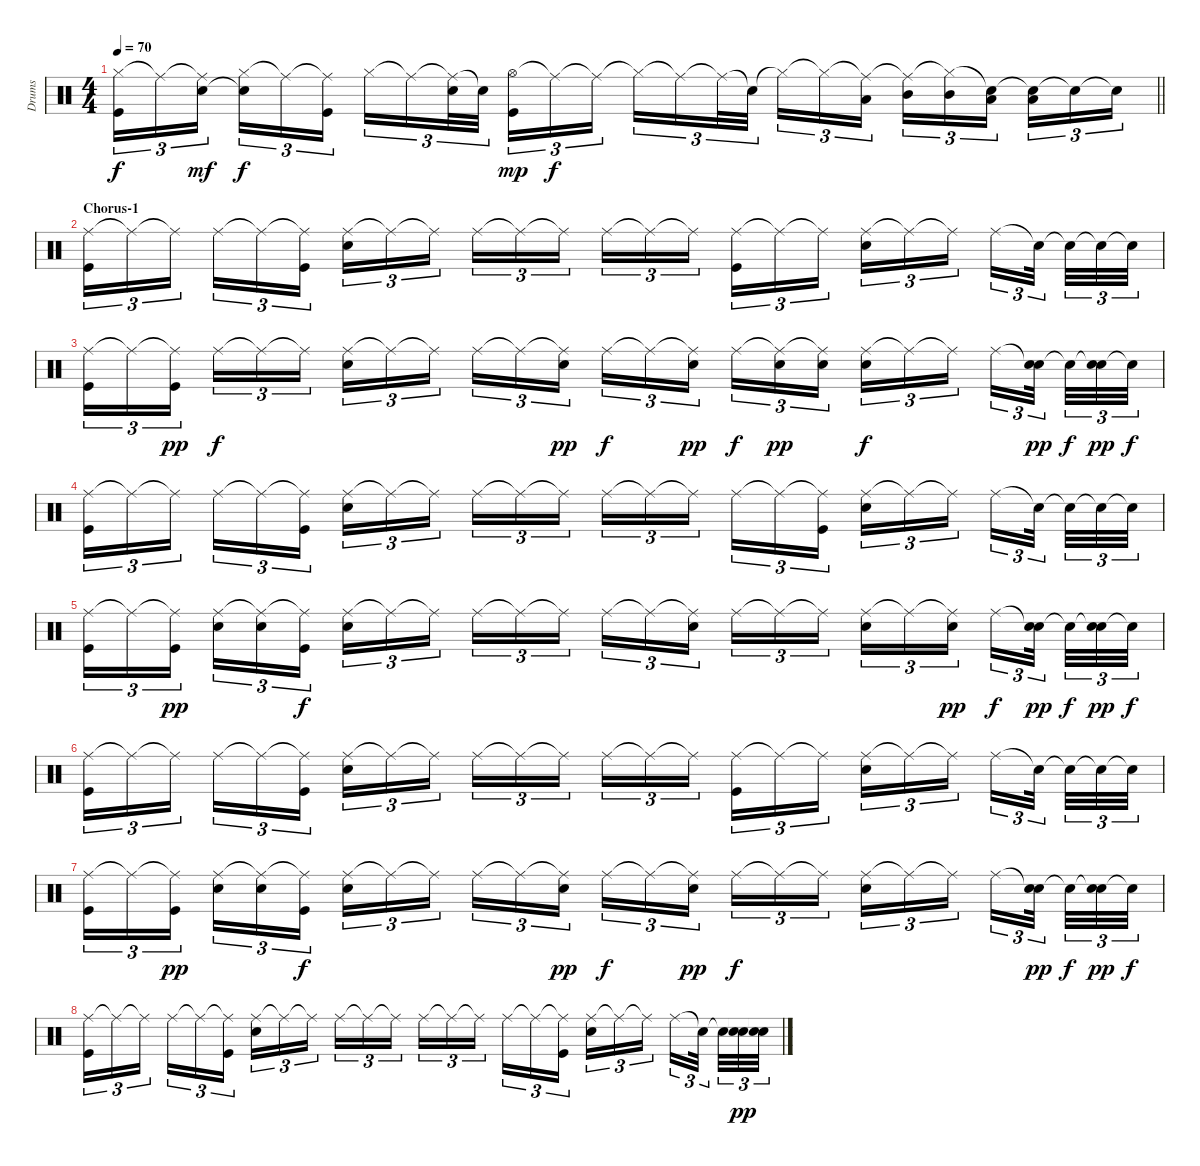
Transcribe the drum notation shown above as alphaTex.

\track ("Drums" "Drums") {instrument percussion}
\staff {score}
\articulation defaults
\ts (4 4)
\tempo 70
\clef neutral
\barLineRight lightlight
\ks c
("Hi-Hat (closed)" "Kick (hit)").16{tu (3 2) dy f} "Ride (middle)"{t}.16{tu (3 2)} ("Ride (middle)"{t} "Electric Snare (hit)").16{tu (3 2) dy mf} ("Hi-Hat (closed)" "Electric Snare (hit)"{t}).16{tu (3 2) dy f} "Ride (middle)"{t}.16{tu (3 2)} ("Ride (middle)"{t} "Kick (hit)").16{tu (3 2)} "Hi-Hat (closed)".16{tu (3 2)} "Ride (middle)"{t}.16{tu (3 2)} ("Ride (middle)"{t} "Electric Snare (hit)").32{tu (3 2)} "Electric Snare (hit)"{t}.32{tu (3 2)} ("Hi-Hat (open)" "Kick (hit)").16{tu (3 2) dy mp} "Ride (middle)"{t}.16{tu (3 2) dy f} "Ride (middle)"{t}.16{tu (3 2)} "Hi-Hat (closed)"{t}.16{tu (3 2)} "Ride (middle)"{t}.16{tu (3 2)} "Ride (middle)"{t}.32{tu (3 2)} "Snare (hit)"{t}.32{tu (3 2)} "Hi-Hat (closed)"{t}.16{tu (3 2)} "Hi-Hat (closed)"{t}.16{tu (3 2)} ("Ride (middle)"{t} "Low Tom (hit)").16{tu (3 2)} ("Ride (middle)"{t} "Mid Tom (hit)").16{tu (3 2)} ("Hi-Hat (closed)"{t} "Mid Tom (hit)").16{tu (3 2)} ("Snare (hit)"{t} "Low Tom (hit)").16{tu (3 2)} ("Snare (hit)"{t} "Low Tom (hit)").16{tu (3 2)} "Snare (hit)"{t}.16{tu (3 2)} "Snare (hit)"{t}.16{tu (3 2)} |
\section ("" "Chorus-1")
("Ride (middle)" "Kick (hit)").16{tu (3 2)} "Ride (middle)"{t}.16{tu (3 2)} "Ride (middle)"{t}.16{tu (3 2)} "Ride (middle)".16{tu (3 2)} "Ride (middle)"{t}.16{tu (3 2)} ("Ride (middle)"{t} "Kick (hit)").16{tu (3 2)} ("Ride (middle)" "Electric Snare (hit)").16{tu (3 2)} "Ride (middle)"{t}.16{tu (3 2)} "Ride (middle)"{t}.16{tu (3 2)} "Ride (middle)".16{tu (3 2)} "Ride (middle)"{t}.16{tu (3 2)} "Ride (middle)"{t}.16{tu (3 2)} "Ride (middle)".16{tu (3 2)} "Ride (middle)"{t}.16{tu (3 2)} "Ride (middle)"{t}.16{tu (3 2)} ("Ride (middle)" "Kick (hit)").16{tu (3 2)} "Ride (middle)"{t}.16{tu (3 2)} "Ride (middle)"{t}.16{tu (3 2)} ("Ride (middle)" "Electric Snare (hit)").16{tu (3 2)} "Ride (middle)"{t}.16{tu (3 2)} "Ride (middle)"{t}.16{tu (3 2)} "Ride (middle)".16{tu (3 2)} "Snare (hit)"{t}.32{tu (3 2)} "Snare (hit)"{t}.32{tu (3 2)} "Snare (hit)"{t}.32{tu (3 2)} "Snare (hit)"{t}.32{tu (3 2)} |
("Ride (middle)" "Kick (hit)").16{tu (3 2)} "Ride (middle)"{t}.16{tu (3 2)} ("Ride (middle)"{t} "Kick (hit)").16{tu (3 2) dy pp} "Ride (middle)".16{tu (3 2) dy f} "Ride (middle)"{t}.16{tu (3 2)} "Ride (middle)"{t}.16{tu (3 2)} ("Ride (middle)" "Electric Snare (hit)").16{tu (3 2)} "Ride (middle)"{t}.16{tu (3 2)} "Ride (middle)"{t}.16{tu (3 2)} "Ride (middle)".16{tu (3 2)} "Ride (middle)"{t}.16{tu (3 2)} ("Ride (middle)"{t} "Electric Snare (hit)").16{tu (3 2) dy pp} "Ride (middle)".16{tu (3 2) dy f} "Ride (middle)"{t}.16{tu (3 2)} ("Ride (middle)"{t} "Electric Snare (hit)").16{tu (3 2) dy pp} "Ride (middle)".16{tu (3 2) dy f} ("Ride (middle)"{t} "Electric Snare (hit)").16{tu (3 2) dy pp} ("Ride (middle)"{t} "Electric Snare (hit)").16{tu (3 2)} ("Ride (middle)" "Electric Snare (hit)").16{tu (3 2) dy f} "Ride (middle)"{t}.16{tu (3 2)} "Ride (middle)"{t}.16{tu (3 2)} "Ride (middle)".16{tu (3 2)} ("Snare (hit)"{t} "Electric Snare (hit)").32{tu (3 2) dy pp} "Snare (hit)"{t}.32{tu (3 2) dy f} ("Snare (hit)"{t} "Electric Snare (hit)").32{tu (3 2) dy pp} "Snare (hit)"{t}.32{tu (3 2) dy f} |
("Ride (middle)" "Kick (hit)").16{tu (3 2)} "Ride (middle)"{t}.16{tu (3 2)} "Ride (middle)"{t}.16{tu (3 2)} "Ride (middle)".16{tu (3 2)} "Ride (middle)"{t}.16{tu (3 2)} ("Ride (middle)"{t} "Kick (hit)").16{tu (3 2)} ("Ride (middle)" "Electric Snare (hit)").16{tu (3 2)} "Ride (middle)"{t}.16{tu (3 2)} "Ride (middle)"{t}.16{tu (3 2)} "Ride (middle)".16{tu (3 2)} "Ride (middle)"{t}.16{tu (3 2)} "Ride (middle)"{t}.16{tu (3 2)} "Ride (middle)".16{tu (3 2)} "Ride (middle)"{t}.16{tu (3 2)} "Ride (middle)"{t}.16{tu (3 2)} "Ride (middle)".16{tu (3 2)} "Ride (middle)"{t}.16{tu (3 2)} ("Ride (middle)"{t} "Kick (hit)").16{tu (3 2)} ("Ride (middle)" "Electric Snare (hit)").16{tu (3 2)} "Ride (middle)"{t}.16{tu (3 2)} "Ride (middle)"{t}.16{tu (3 2)} "Ride (middle)".16{tu (3 2)} "Snare (hit)"{t}.32{tu (3 2)} "Snare (hit)"{t}.32{tu (3 2)} "Snare (hit)"{t}.32{tu (3 2)} "Snare (hit)"{t}.32{tu (3 2)} |
("Ride (middle)" "Kick (hit)").16{tu (3 2)} "Ride (middle)"{t}.16{tu (3 2)} ("Ride (middle)"{t} "Kick (hit)").16{tu (3 2) dy pp} ("Ride (middle)" "Electric Snare (hit)").16{tu (3 2)} ("Ride (middle)"{t} "Electric Snare (hit)").16{tu (3 2)} ("Ride (middle)"{t} "Kick (hit)").16{tu (3 2) dy f} ("Ride (middle)" "Electric Snare (hit)").16{tu (3 2)} "Ride (middle)"{t}.16{tu (3 2)} "Ride (middle)"{t}.16{tu (3 2)} "Ride (middle)".16{tu (3 2)} "Ride (middle)"{t}.16{tu (3 2)} "Ride (middle)"{t}.16{tu (3 2)} "Ride (middle)".16{tu (3 2)} "Ride (middle)"{t}.16{tu (3 2)} ("Ride (middle)"{t} "Electric Snare (hit)").16{tu (3 2)} "Ride (middle)".16{tu (3 2)} "Ride (middle)"{t}.16{tu (3 2)} "Ride (middle)"{t}.16{tu (3 2)} ("Ride (middle)" "Electric Snare (hit)").16{tu (3 2)} "Ride (middle)"{t}.16{tu (3 2)} ("Ride (middle)"{t} "Electric Snare (hit)").16{tu (3 2) dy pp} "Ride (middle)".16{tu (3 2) dy f} ("Snare (hit)"{t} "Electric Snare (hit)").32{tu (3 2) dy pp} "Snare (hit)"{t}.32{tu (3 2) dy f} ("Snare (hit)"{t} "Electric Snare (hit)").32{tu (3 2) dy pp} "Snare (hit)"{t}.32{tu (3 2) dy f} |
("Ride (middle)" "Kick (hit)").16{tu (3 2)} "Ride (middle)"{t}.16{tu (3 2)} "Ride (middle)"{t}.16{tu (3 2)} "Ride (middle)".16{tu (3 2)} "Ride (middle)"{t}.16{tu (3 2)} ("Ride (middle)"{t} "Kick (hit)").16{tu (3 2)} ("Ride (middle)" "Electric Snare (hit)").16{tu (3 2)} "Ride (middle)"{t}.16{tu (3 2)} "Ride (middle)"{t}.16{tu (3 2)} "Ride (middle)".16{tu (3 2)} "Ride (middle)"{t}.16{tu (3 2)} "Ride (middle)"{t}.16{tu (3 2)} "Ride (middle)".16{tu (3 2)} "Ride (middle)"{t}.16{tu (3 2)} "Ride (middle)"{t}.16{tu (3 2)} ("Ride (middle)" "Kick (hit)").16{tu (3 2)} "Ride (middle)"{t}.16{tu (3 2)} "Ride (middle)"{t}.16{tu (3 2)} ("Ride (middle)" "Electric Snare (hit)").16{tu (3 2)} "Ride (middle)"{t}.16{tu (3 2)} "Ride (middle)"{t}.16{tu (3 2)} "Ride (middle)".16{tu (3 2)} "Snare (hit)"{t}.32{tu (3 2)} "Snare (hit)"{t}.32{tu (3 2)} "Snare (hit)"{t}.32{tu (3 2)} "Snare (hit)"{t}.32{tu (3 2)} |
("Ride (middle)" "Kick (hit)").16{tu (3 2)} "Ride (middle)"{t}.16{tu (3 2)} ("Ride (middle)"{t} "Kick (hit)").16{tu (3 2) dy pp} ("Ride (middle)" "Electric Snare (hit)").16{tu (3 2)} ("Ride (middle)"{t} "Electric Snare (hit)").16{tu (3 2)} ("Ride (middle)"{t} "Kick (hit)").16{tu (3 2) dy f} ("Ride (middle)" "Electric Snare (hit)").16{tu (3 2)} "Ride (middle)"{t}.16{tu (3 2)} "Ride (middle)"{t}.16{tu (3 2)} "Ride (middle)".16{tu (3 2)} "Ride (middle)"{t}.16{tu (3 2)} ("Ride (middle)"{t} "Electric Snare (hit)").16{tu (3 2) dy pp} "Ride (middle)".16{tu (3 2) dy f} "Ride (middle)"{t}.16{tu (3 2)} ("Ride (middle)"{t} "Electric Snare (hit)").16{tu (3 2) dy pp} "Ride (middle)".16{tu (3 2) dy f} "Ride (middle)"{t}.16{tu (3 2)} "Ride (middle)"{t}.16{tu (3 2)} ("Ride (middle)" "Electric Snare (hit)").16{tu (3 2)} "Ride (middle)"{t}.16{tu (3 2)} "Ride (middle)"{t}.16{tu (3 2)} "Ride (middle)".16{tu (3 2)} ("Snare (hit)"{t} "Electric Snare (hit)").32{tu (3 2) dy pp} "Snare (hit)"{t}.32{tu (3 2) dy f} ("Snare (hit)"{t} "Electric Snare (hit)").32{tu (3 2) dy pp} "Snare (hit)"{t}.32{tu (3 2) dy f} |
("Ride (middle)" "Kick (hit)").16{tu (3 2)} "Ride (middle)"{t}.16{tu (3 2)} "Ride (middle)"{t}.16{tu (3 2)} "Ride (middle)".16{tu (3 2)} "Ride (middle)"{t}.16{tu (3 2)} ("Ride (middle)"{t} "Kick (hit)").16{tu (3 2)} ("Ride (middle)" "Electric Snare (hit)").16{tu (3 2)} "Ride (middle)"{t}.16{tu (3 2)} "Ride (middle)"{t}.16{tu (3 2)} "Ride (middle)".16{tu (3 2)} "Ride (middle)"{t}.16{tu (3 2)} "Ride (middle)"{t}.16{tu (3 2)} "Ride (middle)".16{tu (3 2)} "Ride (middle)"{t}.16{tu (3 2)} "Ride (middle)"{t}.16{tu (3 2)} "Ride (middle)".16{tu (3 2)} "Ride (middle)"{t}.16{tu (3 2)} ("Ride (middle)"{t} "Kick (hit)").16{tu (3 2)} ("Ride (middle)" "Electric Snare (hit)").16{tu (3 2)} "Ride (middle)"{t}.16{tu (3 2)} "Ride (middle)"{t}.16{tu (3 2)} "Ride (middle)".16{tu (3 2)} "Snare (hit)"{t}.32{tu (3 2)} "Snare (hit)"{t}.32{tu (3 2)} ("Snare (hit)"{t} "Electric Snare (hit)").32{tu (3 2) dy pp} ("Snare (hit)"{t} "Electric Snare (hit)").32{tu (3 2)}
